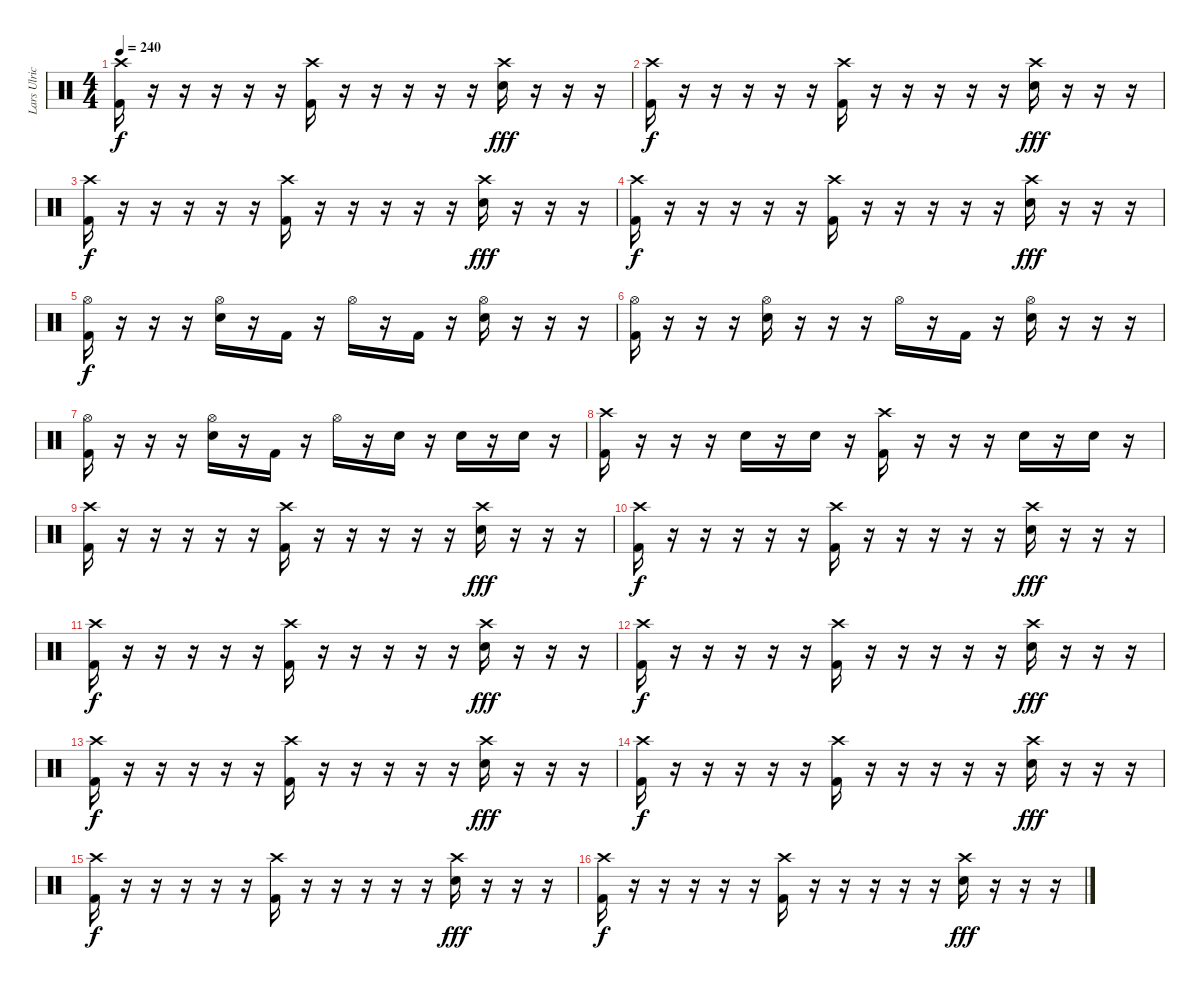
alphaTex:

\track ("Lars Ulrich" "Lars Ulric") {instrument percussion}
\staff {score}
\articulation defaults
\ts (4 4)
\tempo 240
\clef neutral
\ks c
("Crash high (hit)" "Kick (hit) 2").16{dy f} r.16 r.16 r.16 r.16 r.16 ("Crash high (hit)" "Kick (hit) 2").16 r.16 r.16 r.16 r.16 r.16 ("Crash high (hit)" "Electric Snare (hit)").16{dy fff} r.16 r.16 r.16 |
("Crash high (hit)" "Kick (hit) 2").16{dy f} r.16 r.16 r.16 r.16 r.16 ("Crash high (hit)" "Kick (hit) 2").16 r.16 r.16 r.16 r.16 r.16 ("Crash high (hit)" "Electric Snare (hit)").16{dy fff} r.16 r.16 r.16 |
("Crash high (hit)" "Kick (hit) 2").16{dy f} r.16 r.16 r.16 r.16 r.16 ("Crash high (hit)" "Kick (hit) 2").16 r.16 r.16 r.16 r.16 r.16 ("Crash high (hit)" "Electric Snare (hit)").16{dy fff} r.16 r.16 r.16 |
("Crash high (hit)" "Kick (hit) 2").16{dy f} r.16 r.16 r.16 r.16 r.16 ("Crash high (hit)" "Kick (hit) 2").16 r.16 r.16 r.16 r.16 r.16 ("Crash high (hit)" "Electric Snare (hit)").16{dy fff} r.16 r.16 r.16 |
("Hi-Hat (open)" "Kick (hit) 2").16{dy f} r.16 r.16 r.16 ("Electric Snare (hit)" "Hi-Hat (open)").16 r.16 "Kick (hit) 2".16 r.16 "Hi-Hat (open)".16 r.16 "Kick (hit) 2".16 r.16 ("Electric Snare (hit)" "Hi-Hat (open)").16 r.16 r.16 r.16 |
("Hi-Hat (open)" "Kick (hit) 2").16 r.16 r.16 r.16 ("Electric Snare (hit)" "Hi-Hat (open)").16 r.16 r.16 r.16 "Hi-Hat (open)".16 r.16 "Kick (hit) 2".16 r.16 ("Electric Snare (hit)" "Hi-Hat (open)").16 r.16 r.16 r.16 |
("Hi-Hat (open)" "Kick (hit) 2").16 r.16 r.16 r.16 ("Electric Snare (hit)" "Hi-Hat (open)").16 r.16 "Kick (hit) 2".16 r.16 "Hi-Hat (open)".16 r.16 "Electric Snare (hit)".16 r.16 "Electric Snare (hit)".16 r.16 "Electric Snare (hit)".16 r.16 |
("Crash high (hit)" "Kick (hit) 2").16 r.16 r.16 r.16 "Electric Snare (hit)".16 r.16 "Electric Snare (hit)".16 r.16 ("Crash high (hit)" "Kick (hit) 2").16 r.16 r.16 r.16 "Electric Snare (hit)".16 r.16 "Electric Snare (hit)".16 r.16 |
("Crash high (hit)" "Kick (hit) 2").16 r.16 r.16 r.16 r.16 r.16 ("Crash high (hit)" "Kick (hit) 2").16 r.16 r.16 r.16 r.16 r.16 ("Crash high (hit)" "Electric Snare (hit)").16{dy fff} r.16 r.16 r.16 |
("Crash high (hit)" "Kick (hit) 2").16{dy f} r.16 r.16 r.16 r.16 r.16 ("Crash high (hit)" "Kick (hit) 2").16 r.16 r.16 r.16 r.16 r.16 ("Crash high (hit)" "Electric Snare (hit)").16{dy fff} r.16 r.16 r.16 |
("Crash high (hit)" "Kick (hit) 2").16{dy f} r.16 r.16 r.16 r.16 r.16 ("Crash high (hit)" "Kick (hit) 2").16 r.16 r.16 r.16 r.16 r.16 ("Crash high (hit)" "Electric Snare (hit)").16{dy fff} r.16 r.16 r.16 |
("Crash high (hit)" "Kick (hit) 2").16{dy f} r.16 r.16 r.16 r.16 r.16 ("Crash high (hit)" "Kick (hit) 2").16 r.16 r.16 r.16 r.16 r.16 ("Crash high (hit)" "Electric Snare (hit)").16{dy fff} r.16 r.16 r.16 |
("Crash high (hit)" "Kick (hit) 2").16{dy f} r.16 r.16 r.16 r.16 r.16 ("Crash high (hit)" "Kick (hit) 2").16 r.16 r.16 r.16 r.16 r.16 ("Crash high (hit)" "Electric Snare (hit)").16{dy fff} r.16 r.16 r.16 |
("Crash high (hit)" "Kick (hit) 2").16{dy f} r.16 r.16 r.16 r.16 r.16 ("Crash high (hit)" "Kick (hit) 2").16 r.16 r.16 r.16 r.16 r.16 ("Crash high (hit)" "Electric Snare (hit)").16{dy fff} r.16 r.16 r.16 |
("Crash high (hit)" "Kick (hit) 2").16{dy f} r.16 r.16 r.16 r.16 r.16 ("Crash high (hit)" "Kick (hit) 2").16 r.16 r.16 r.16 r.16 r.16 ("Crash high (hit)" "Electric Snare (hit)").16{dy fff} r.16 r.16 r.16 |
("Crash high (hit)" "Kick (hit) 2").16{dy f} r.16 r.16 r.16 r.16 r.16 ("Crash high (hit)" "Kick (hit) 2").16 r.16 r.16 r.16 r.16 r.16 ("Crash high (hit)" "Electric Snare (hit)").16{dy fff} r.16 r.16 r.16
